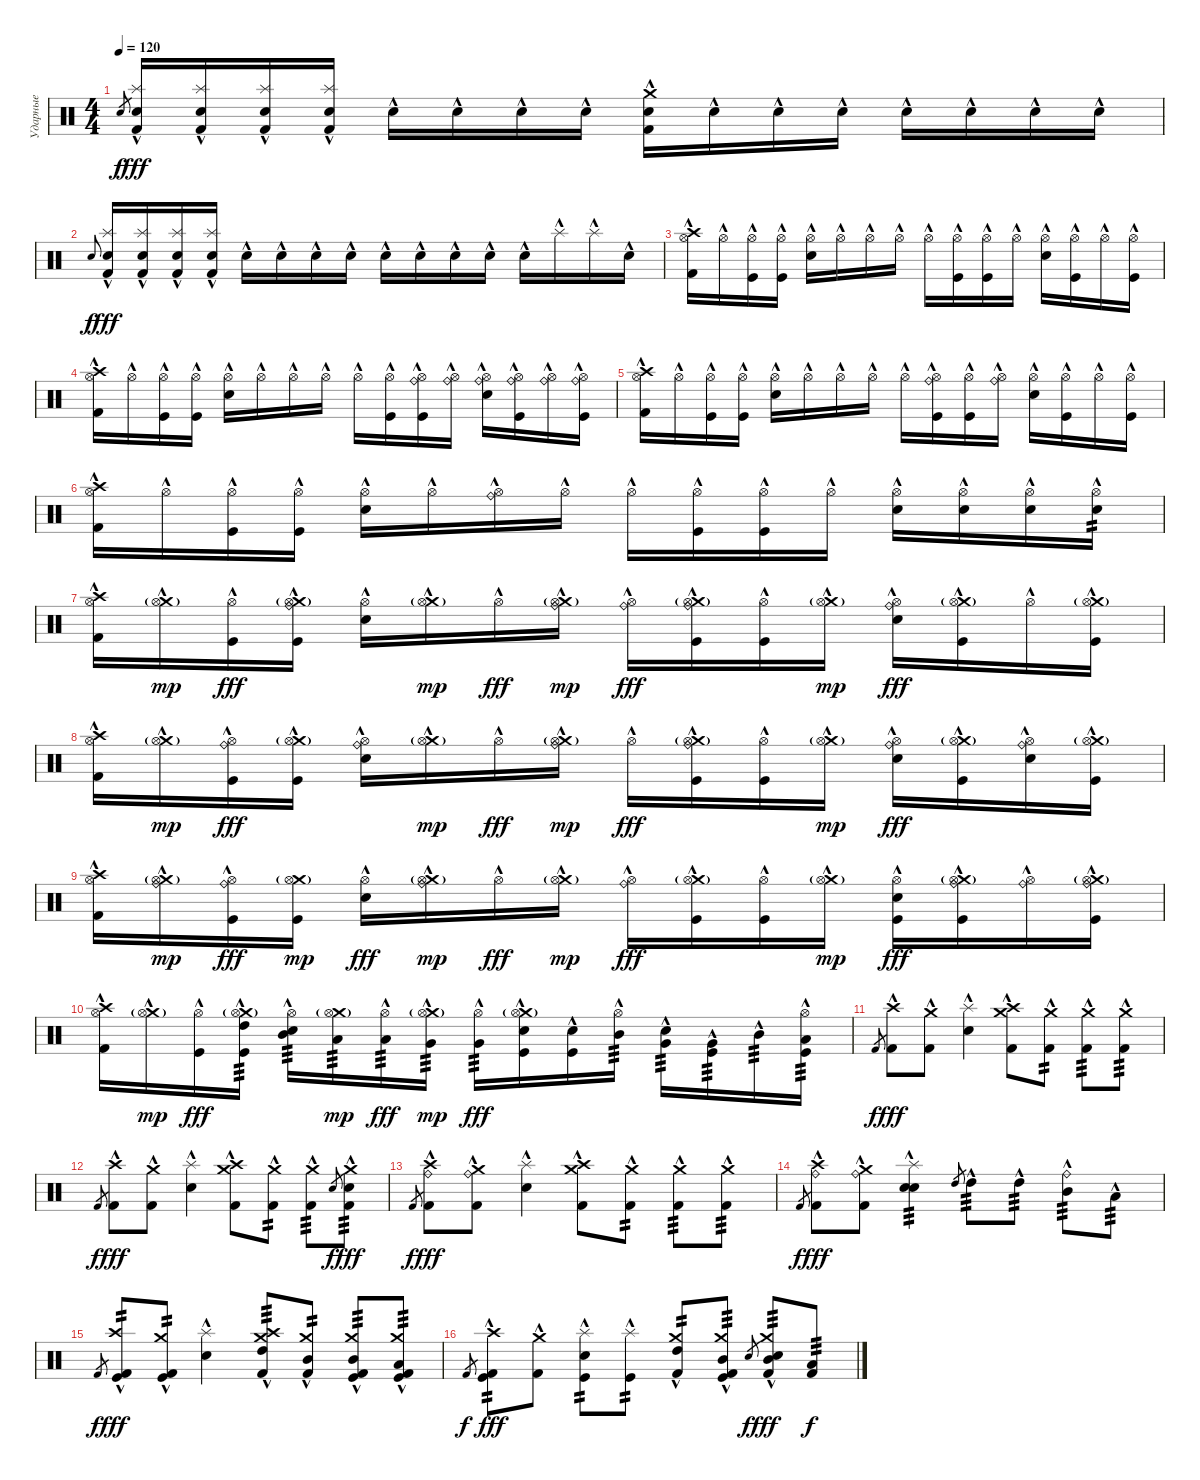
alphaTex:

\track ("Ударные" "Ударные") {instrument percussion}
\staff {score}
\articulation defaults
\ts (4 4)
\tempo 120
\clef neutral
\ks c "Electric Snare (hit)".8{gr dy f}
("Splash (hit)"{hac} "Kick (hit) 2"{hac} "Electric Snare (hit)"{hac}).16{dy fff} ("Splash (hit)"{hac} "Kick (hit) 2"{hac} "Electric Snare (hit)"{hac}).16 ("Splash (hit)"{hac} "Kick (hit) 2"{hac} "Electric Snare (hit)"{hac}).16 ("Splash (hit)"{hac} "Kick (hit) 2"{hac} "Electric Snare (hit)"{hac}).16 "Snare (hit)"{hac}.16 "Snare (hit)"{hac}.16 "Snare (hit)"{hac}.16 "Snare (hit)"{hac}.16 ("Kick (hit) 2"{hac} "Electric Snare (hit)"{hac} "Crash medium (hit)"{hac}).16 "Snare (hit)"{hac}.16 "Snare (hit)"{hac}.16 "Snare (hit)"{hac}.16 "Snare (hit)"{hac}.16 "Snare (hit)"{hac}.16 "Snare (hit)"{hac}.16 "Snare (hit)"{hac}.16 |
"Electric Snare (hit)".8{gr onbeat dy f} ("Splash (hit)"{hac} "Kick (hit) 2"{hac} "Electric Snare (hit)"{hac}).16{dy fff} ("Splash (hit)"{hac} "Kick (hit) 2"{hac} "Electric Snare (hit)"{hac}).16 ("Splash (hit)"{hac} "Kick (hit) 2"{hac} "Electric Snare (hit)"{hac}).16 ("Splash (hit)"{hac} "Kick (hit) 2"{hac} "Electric Snare (hit)"{hac}).16 "Snare (hit)"{hac}.16 "Snare (hit)"{hac}.16 "Snare (hit)"{hac}.16 "Snare (hit)"{hac}.16 "Snare (hit)"{hac}.16 "Snare (hit)"{hac}.16 "Snare (hit)"{hac}.16 "Snare (hit)"{hac}.16 "Snare (hit)"{hac}.16 "Splash (hit)"{hac}.16 "Splash (hit)"{hac}.16 "Snare (hit)"{hac}.16 |
("Hi-Hat (open)"{hac} "Kick (hit) 2"{hac} "Crash high (hit)"{hac}).16 "Hi-Hat (open)"{hac}.16 ("Hi-Hat (open)"{hac} "Kick (hit)"{hac}).16 ("Hi-Hat (open)"{hac} "Kick (hit)"{hac}).16 ("Hi-Hat (open)"{hac} "Electric Snare (hit)"{hac}).16 "Hi-Hat (open)"{hac}.16 "Hi-Hat (open)"{hac}.16 "Hi-Hat (open)"{hac}.16 "Hi-Hat (open)"{hac}.16 ("Hi-Hat (open)"{hac} "Kick (hit)"{hac}).16 ("Hi-Hat (open)"{hac} "Kick (hit)"{hac}).16 "Hi-Hat (open)"{hac}.16 ("Hi-Hat (open)"{hac} "Electric Snare (hit)"{hac}).16 ("Hi-Hat (open)"{hac} "Kick (hit)"{hac}).16 "Hi-Hat (open)"{hac}.16 ("Hi-Hat (open)"{hac} "Kick (hit)"{hac}).16 |
("Hi-Hat (open)"{hac} "Kick (hit) 2"{hac} "Crash high (hit)"{hac}).16 "Hi-Hat (open)"{hac}.16 ("Hi-Hat (open)"{hac} "Kick (hit)"{hac}).16 ("Hi-Hat (open)"{hac} "Kick (hit)"{hac}).16 ("Hi-Hat (open)"{hac} "Electric Snare (hit)"{hac}).16 "Hi-Hat (open)"{hac}.16 "Hi-Hat (open)"{hac}.16 "Hi-Hat (open)"{hac}.16 "Hi-Hat (open)"{hac}.16 ("Hi-Hat (open)"{hac} "Kick (hit)"{hac}).16 ("Hi-Hat (open)"{hac} "Kick (hit)"{hac} "Ride (bell)").16 ("Hi-Hat (open)"{hac} "Ride (bell)").16 ("Hi-Hat (open)"{hac} "Electric Snare (hit)"{hac} "Ride (bell)").16 ("Hi-Hat (open)"{hac} "Kick (hit)"{hac} "Ride (bell)").16 ("Hi-Hat (open)"{hac} "Ride (bell)").16 ("Hi-Hat (open)"{hac} "Kick (hit)"{hac} "Ride (bell)").16 |
("Hi-Hat (open)"{hac} "Kick (hit) 2"{hac} "Crash high (hit)"{hac}).16 "Hi-Hat (open)"{hac}.16 ("Hi-Hat (open)"{hac} "Kick (hit)"{hac}).16 ("Hi-Hat (open)"{hac} "Kick (hit)"{hac}).16 ("Hi-Hat (open)"{hac} "Electric Snare (hit)"{hac}).16 "Hi-Hat (open)"{hac}.16 "Hi-Hat (open)"{hac}.16 "Hi-Hat (open)"{hac}.16 "Hi-Hat (open)"{hac}.16 ("Hi-Hat (open)"{hac} "Kick (hit)"{hac} "Ride (bell)").16 ("Hi-Hat (open)"{hac} "Kick (hit)"{hac}).16 ("Hi-Hat (open)"{hac} "Ride (bell)").16 ("Hi-Hat (open)"{hac} "Electric Snare (hit)"{hac}).16 ("Hi-Hat (open)"{hac} "Kick (hit)"{hac}).16 "Hi-Hat (open)"{hac}.16 ("Hi-Hat (open)"{hac} "Kick (hit)"{hac}).16 |
("Hi-Hat (open)"{hac} "Kick (hit) 2"{hac} "Crash high (hit)"{hac}).16 "Hi-Hat (open)"{hac}.16 ("Hi-Hat (open)"{hac} "Kick (hit)"{hac}).16 ("Hi-Hat (open)"{hac} "Kick (hit)"{hac}).16 ("Hi-Hat (open)"{hac} "Electric Snare (hit)"{hac}).16 "Hi-Hat (open)"{hac}.16 ("Hi-Hat (open)"{hac} "Ride (bell)").16 "Hi-Hat (open)"{hac}.16 "Hi-Hat (open)"{hac}.16 ("Hi-Hat (open)"{hac} "Kick (hit)"{hac}).16 ("Hi-Hat (open)"{hac} "Kick (hit)"{hac}).16 "Hi-Hat (open)"{hac}.16 ("Hi-Hat (open)"{hac} "Electric Snare (hit)"{hac}).16 ("Hi-Hat (open)"{hac} "Electric Snare (hit)"{hac}).16 ("Hi-Hat (open)"{hac} "Electric Snare (hit)"{hac}).16 ("Hi-Hat (open)"{hac} "Electric Snare (hit)"{hac}).16{tp 2} |
("Hi-Hat (open)"{hac} "Kick (hit) 2"{hac} "Crash high (hit)"{hac}).16 ("Crash medium (hit)"{hac} "Hi-Hat (open)"{g}).16{dy mp} ("Hi-Hat (open)"{hac} "Kick (hit)"{hac}).16{dy fff} ("Crash medium (hit)"{hac} "Hi-Hat (open)"{g} "Kick (hit)"{hac} "Ride (bell)").16 ("Hi-Hat (open)"{hac} "Electric Snare (hit)"{hac}).16 ("Crash medium (hit)"{hac} "Hi-Hat (open)"{g}).16{dy mp} "Hi-Hat (open)"{hac}.16{dy fff} ("Crash medium (hit)"{hac} "Hi-Hat (open)"{g} "Ride (bell)").16{dy mp} ("Hi-Hat (open)"{hac} "Ride (bell)").16{dy fff} ("Crash medium (hit)"{hac} "Hi-Hat (open)"{g} "Kick (hit)"{hac} "Ride (bell)").16 ("Hi-Hat (open)"{hac} "Kick (hit)"{hac}).16 ("Crash medium (hit)"{hac} "Hi-Hat (open)"{g}).16{dy mp} ("Hi-Hat (open)"{hac} "Electric Snare (hit)"{hac} "Ride (bell)").16{dy fff} ("Crash medium (hit)"{hac} "Hi-Hat (open)"{g} "Kick (hit)"{hac}).16 "Hi-Hat (open)"{hac}.16 ("Crash medium (hit)"{hac} "Hi-Hat (open)"{g} "Kick (hit)"{hac}).16 |
("Hi-Hat (open)"{hac} "Kick (hit) 2"{hac} "Crash high (hit)"{hac}).16 ("Crash medium (hit)"{hac} "Hi-Hat (open)"{g}).16{dy mp} ("Hi-Hat (open)"{hac} "Kick (hit)"{hac} "Ride (bell)").16{dy fff} ("Crash medium (hit)"{hac} "Hi-Hat (open)"{g} "Kick (hit)"{hac}).16 ("Hi-Hat (open)"{hac} "Electric Snare (hit)"{hac} "Ride (bell)").16 ("Crash medium (hit)"{hac} "Hi-Hat (open)"{g}).16{dy mp} "Hi-Hat (open)"{hac}.16{dy fff} ("Crash medium (hit)"{hac} "Hi-Hat (open)"{g} "Ride (bell)").16{dy mp} "Hi-Hat (open)"{hac}.16{dy fff} ("Crash medium (hit)"{hac} "Hi-Hat (open)"{g} "Kick (hit)"{hac} "Ride (bell)").16 ("Hi-Hat (open)"{hac} "Kick (hit)"{hac}).16 ("Crash medium (hit)"{hac} "Hi-Hat (open)"{g}).16{dy mp} ("Hi-Hat (open)"{hac} "Electric Snare (hit)"{hac} "Ride (bell)").16{dy fff} ("Crash medium (hit)"{hac} "Hi-Hat (open)"{g} "Kick (hit)"{hac}).16 ("Snare (hit)"{hac} "Hi-Hat (open)"{hac} "Ride (bell)").16 ("Crash medium (hit)"{hac} "Hi-Hat (open)"{g} "Kick (hit)"{hac}).16 |
("Hi-Hat (open)"{hac} "Kick (hit) 2"{hac} "Crash high (hit)"{hac}).16 ("Crash medium (hit)"{hac} "Hi-Hat (open)"{g} "Ride (bell)").16{dy mp} ("Hi-Hat (open)"{hac} "Kick (hit)"{hac} "Ride (bell)").16{dy fff} ("Crash medium (hit)" "Hi-Hat (open)"{g} "Kick (hit)").16{dy mp} ("Hi-Hat (open)"{hac} "Electric Snare (hit)"{hac}).16{dy fff} ("Crash medium (hit)"{hac} "Hi-Hat (open)"{g} "Ride (bell)").16{dy mp} "Hi-Hat (open)"{hac}.16{dy fff} ("Crash medium (hit)"{hac} "Hi-Hat (open)"{g}).16{dy mp} ("Hi-Hat (open)"{hac} "Ride (bell)").16{dy fff} ("Crash medium (hit)"{hac} "Hi-Hat (open)"{g} "Kick (hit)"{hac}).16 ("Hi-Hat (open)"{hac} "Kick (hit)"{hac}).16 ("Crash medium (hit)"{hac} "Hi-Hat (open)"{g}).16{dy mp} ("Hi-Hat (open)"{hac} "Electric Snare (hit)"{hac} "Kick (hit)").16{dy fff} ("Crash medium (hit)"{hac} "Hi-Hat (open)"{g} "Kick (hit)"{hac} "Ride (bell)").16 ("Hi-Hat (open)"{hac} "Ride (bell)").16 ("Crash medium (hit)"{hac} "Hi-Hat (open)"{g} "Kick (hit)"{hac} "Ride (bell)").16 |
("Hi-Hat (open)"{hac} "Kick (hit) 2"{hac} "Crash high (hit)"{hac}).16 ("Crash medium (hit)"{hac} "Hi-Hat (open)"{g}).16{dy mp} ("Hi-Hat (open)"{hac} "Kick (hit)"{hac}).16{dy fff} ("Crash medium (hit)"{hac} "Hi-Hat (open)"{g} "Kick (hit)"{hac} "High Tom (hit)").16{tp 3} ("Hi-Hat (open)"{hac} "Electric Snare (hit)"{hac} "Mid Tom (hit)").16{tp 3} ("Crash medium (hit)" "Hi-Hat (open)"{g} "Low Tom (hit)").16{tp 3 dy mp} ("Hi-Hat (open)"{hac} "Low Tom (hit)").16{tp 3 dy fff} ("Crash medium (hit)"{hac} "Hi-Hat (open)"{g} "Very Low Tom (hit)").16{tp 3 dy mp} ("Hi-Hat (open)"{hac} "Very Low Tom (hit)").16{tp 3 dy fff} ("Crash medium (hit)"{hac} "Hi-Hat (open)"{g} "Kick (hit)"{hac} "Electric Snare (hit)"{hac}).16 ("Kick (hit)"{hac} "Electric Snare (hit)"{hac}).16 ("Hi-Hat (open)"{hac} "Mid Tom (hit)"{hac}).16{tp 3} ("Electric Snare (hit)"{hac} "Very Low Tom (hit)").16{tp 3} ("Kick (hit)"{hac} "Very Low Tom (hit)").16{tp 3} "Mid Tom (hit)"{hac}.16{tp 3} ("Hi-Hat (open)"{hac} "Kick (hit)"{hac} "Low Tom (hit)"{hac}).16{tp 3} |
"Kick (hit) 2".8{gr dy f} ("Crash high (hit)"{hac} "Kick (hit) 2"{hac}).8{dy fff} ("Crash medium (hit)"{hac} "Kick (hit) 2"{hac}).8 ("Splash (hit)"{hac} "Electric Snare (hit)"{hac}).4 ("Crash high (hit)"{hac} "Crash medium (hit)"{hac} "Kick (hit) 2"{hac}).8 ("Crash medium (hit)"{hac} "Kick (hit) 2"{hac}).8{tp 2} ("Crash medium (hit)"{hac} "Kick (hit) 2"{hac}).8{tp 3} ("Crash medium (hit)"{hac} "Kick (hit) 2"{hac}).8{tp 3} |
"Kick (hit) 2".8{gr dy f} ("Crash high (hit)"{hac} "Kick (hit) 2"{hac}).8{dy fff} ("Crash medium (hit)"{hac} "Kick (hit) 2"{hac}).8 ("Splash (hit)"{hac} "Electric Snare (hit)"{hac}).4 ("Crash high (hit)"{hac} "Crash medium (hit)"{hac} "Kick (hit) 2"{hac}).8 ("Crash medium (hit)"{hac} "Kick (hit) 2"{hac}).8{tp 2} ("Crash medium (hit)"{hac} "Kick (hit) 2"{hac}).8{tp 3} "Electric Snare (hit)".8{gr dy f} ("Electric Snare (hit)"{hac} "Crash medium (hit)"{hac} "Kick (hit) 2"{hac}).8{tp 3 dy fff} |
"Kick (hit) 2".8{gr dy f} ("Ride (bell)"{hac} "Crash high (hit)"{hac} "Kick (hit) 2"{hac}).8{dy fff} ("Ride (bell)"{hac} "Crash medium (hit)"{hac} "Kick (hit) 2"{hac}).8 ("Splash (hit)"{hac} "Electric Snare (hit)"{hac}).4 ("Crash high (hit)"{hac} "Crash medium (hit)"{hac} "Kick (hit) 2"{hac}).8 ("Crash medium (hit)"{hac} "Kick (hit) 2"{hac}).8{tp 2} ("Crash medium (hit)"{hac} "Kick (hit) 2"{hac}).8{tp 3} ("Crash medium (hit)"{hac} "Kick (hit) 2"{hac}).8{tp 3} |
"Kick (hit) 2".8{gr dy f} ("Ride (bell)"{hac} "Crash high (hit)"{hac} "Kick (hit) 2"{hac}).8{dy fff} ("Ride (bell)"{hac} "Crash medium (hit)"{hac} "Kick (hit) 2"{hac}).8 ("Splash (hit)"{hac} "Electric Snare (hit)"{hac} "Electric Snare (hit)"{hac}).4{tp 3} "High Tom (hit)".8{gr} "High Tom (hit)"{hac}.8{tp 3} "High Tom (hit)"{hac}.8{tp 3} ("Ride (bell)" "Mid Tom (hit)"{hac}).8{tp 3} "Low Tom (hit)"{hac}.8{tp 3} |
"Kick (hit) 2".8{gr dy f} ("Kick (hit)" "Crash high (hit)"{hac} "Kick (hit) 2"{hac}).8{tp 2 dy fff} ("Kick (hit)" "Crash medium (hit)"{hac} "Kick (hit) 2"{hac}).8{tp 2} ("Splash (hit)"{hac} "Electric Snare (hit)"{hac}).4 ("High Tom (hit)" "Crash high (hit)"{hac} "Crash medium (hit)"{hac} "Kick (hit) 2"{hac}).8{tp 3} ("Mid Tom (hit)" "Crash medium (hit)"{hac} "Kick (hit) 2"{hac}).8{tp 2} ("Mid Tom (hit)" "Kick (hit)" "Crash medium (hit)"{hac} "Kick (hit) 2"{hac}).8{tp 3} ("Low Tom (hit)" "Kick (hit)" "Crash medium (hit)"{hac} "Kick (hit) 2"{hac}).8{tp 3} |
"Kick (hit) 2".8{gr dy f} ("Kick (hit)" "Crash high (hit)"{hac} "Kick (hit) 2"{hac}).8{tp 2 dy fff} ("Crash medium (hit)"{hac} "Kick (hit) 2"{hac}).8 ("Splash (hit)"{hac} "Electric Snare (hit)"{hac} "Kick (hit)").8{tp 2} ("Splash (hit)"{hac} "Kick (hit)").8{tp 2} ("High Tom (hit)" "Crash medium (hit)"{hac} "Kick (hit) 2"{hac}).8{tp 2} ("Mid Tom (hit)" "Kick (hit)" "Crash medium (hit)"{hac} "Kick (hit) 2"{hac}).8{tp 3} "Electric Snare (hit)".8{gr dy f} ("Mid Tom (hit)" "Electric Snare (hit)"{hac} "Crash medium (hit)"{hac} "Kick (hit) 2"{hac}).8{tp 3 dy fff} ("Low Tom (hit)" "Kick (hit) 2").8{tp 3 dy f}
